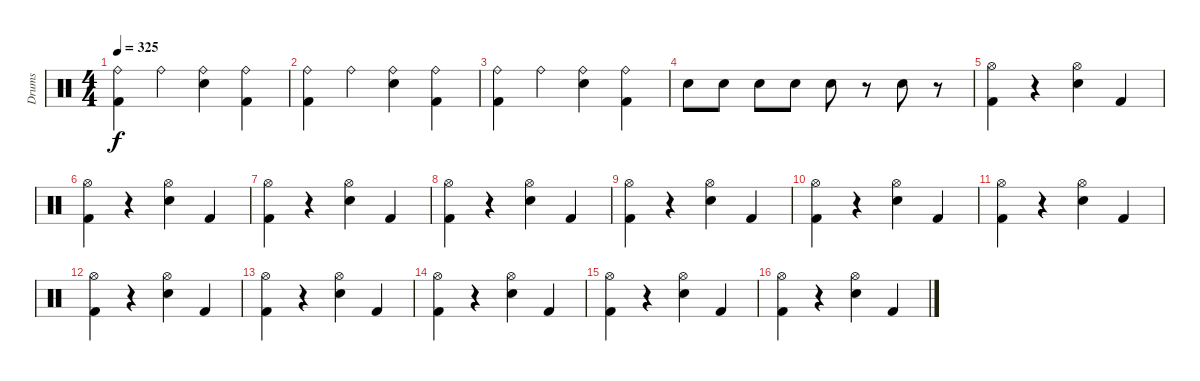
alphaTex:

\track ("Drums" "Drums") {instrument percussion}
\staff {score}
\articulation defaults
\ts (4 4)
\tempo 325
\clef neutral
\ks c
("Kick (hit) 2" "Ride (bell)").4{dy f} "Ride (bell)".4 ("Electric Snare (hit)" "Ride (bell)").4 ("Kick (hit) 2" "Ride (bell)").4 |
("Kick (hit) 2" "Ride (bell)").4 "Ride (bell)".4 ("Electric Snare (hit)" "Ride (bell)").4 ("Kick (hit) 2" "Ride (bell)").4 |
("Kick (hit) 2" "Ride (bell)").4 "Ride (bell)".4 ("Electric Snare (hit)" "Ride (bell)").4 ("Kick (hit) 2" "Ride (bell)").4 |
"Electric Snare (hit)".8 "Electric Snare (hit)".8 "Electric Snare (hit)".8 "Electric Snare (hit)".8 "Electric Snare (hit)".8 r.8 "Electric Snare (hit)".8 r.8 |
("Kick (hit) 2" "Hi-Hat (open)").4 r.4 ("Hi-Hat (open)" "Electric Snare (hit)").4 "Kick (hit) 2".4 |
("Kick (hit) 2" "Hi-Hat (open)").4 r.4 ("Hi-Hat (open)" "Electric Snare (hit)").4 "Kick (hit) 2".4 |
("Kick (hit) 2" "Hi-Hat (open)").4 r.4 ("Hi-Hat (open)" "Electric Snare (hit)").4 "Kick (hit) 2".4 |
("Kick (hit) 2" "Hi-Hat (open)").4 r.4 ("Hi-Hat (open)" "Electric Snare (hit)").4 "Kick (hit) 2".4 |
("Kick (hit) 2" "Hi-Hat (open)").4 r.4 ("Hi-Hat (open)" "Electric Snare (hit)").4 "Kick (hit) 2".4 |
("Kick (hit) 2" "Hi-Hat (open)").4 r.4 ("Hi-Hat (open)" "Electric Snare (hit)").4 "Kick (hit) 2".4 |
("Kick (hit) 2" "Hi-Hat (open)").4 r.4 ("Hi-Hat (open)" "Electric Snare (hit)").4 "Kick (hit) 2".4 |
("Kick (hit) 2" "Hi-Hat (open)").4 r.4 ("Hi-Hat (open)" "Electric Snare (hit)").4 "Kick (hit) 2".4 |
("Kick (hit) 2" "Hi-Hat (open)").4 r.4 ("Hi-Hat (open)" "Electric Snare (hit)").4 "Kick (hit) 2".4 |
("Kick (hit) 2" "Hi-Hat (open)").4 r.4 ("Hi-Hat (open)" "Electric Snare (hit)").4 "Kick (hit) 2".4 |
("Kick (hit) 2" "Hi-Hat (open)").4 r.4 ("Hi-Hat (open)" "Electric Snare (hit)").4 "Kick (hit) 2".4 |
("Kick (hit) 2" "Hi-Hat (open)").4 r.4 ("Hi-Hat (open)" "Electric Snare (hit)").4 "Kick (hit) 2".4
